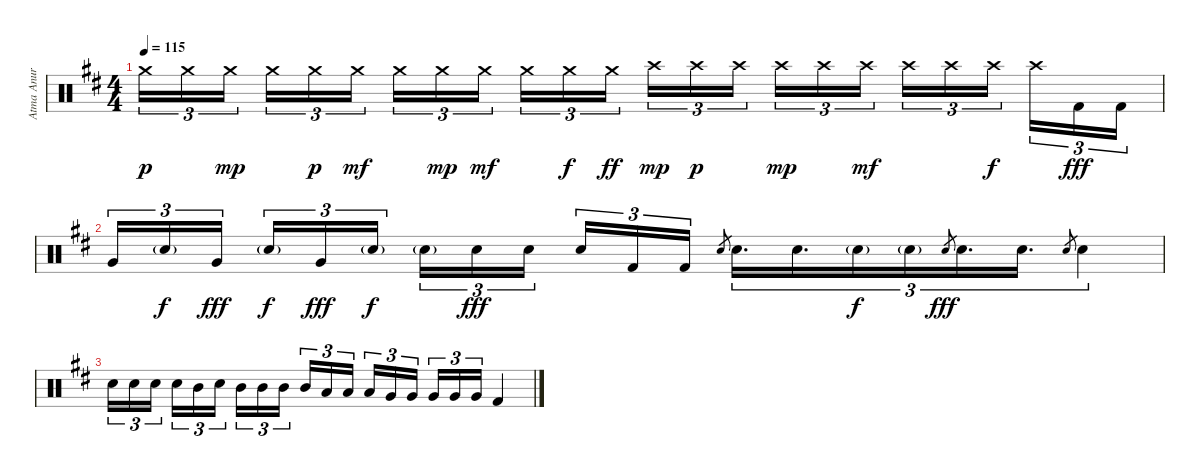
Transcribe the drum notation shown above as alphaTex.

\track ("Atma Anur" "Atma Anur") {instrument percussion}
\staff {score}
\articulation defaults
\ts (4 4)
\tempo 115
\clef neutral
\ks bminor "Crash medium (hit)".16{tu (3 2) dy p} "Crash medium (hit)".16{tu (3 2)} "Crash medium (hit)".16{tu (3 2) dy mp beam splitsecondary} "Crash medium (hit)".16{tu (3 2)} "Crash medium (hit)".16{tu (3 2) dy p} "Crash medium (hit)".16{tu (3 2) dy mf} "Crash medium (hit)".16{tu (3 2)} "Crash medium (hit)".16{tu (3 2) dy mp} "Crash medium (hit)".16{tu (3 2) dy mf beam splitsecondary} "Crash medium (hit)".16{tu (3 2)} "Crash medium (hit)".16{tu (3 2) dy f} "Crash medium (hit)".16{tu (3 2) dy ff} "Crash high (hit)".16{tu (3 2) dy mp} "Crash high (hit)".16{tu (3 2) dy p} "Crash high (hit)".16{tu (3 2) beam splitsecondary} "Crash high (hit)".16{tu (3 2) dy mp} "Crash high (hit)".16{tu (3 2)} "Crash high (hit)".16{tu (3 2) dy mf} "Crash high (hit)".16{tu (3 2)} "Crash high (hit)".16{tu (3 2)} "Crash high (hit)".16{tu (3 2) dy f beam splitsecondary} "Crash high (hit)".16{tu (3 2)} "Kick (hit) 2".16{tu (3 2) dy fff} "Kick (hit) 2".16{tu (3 2)}
|
"Very Low Tom (hit)".16{tu (3 2)} "Electric Snare (hit)"{g}.16{tu (3 2) dy f} "Very Low Tom (hit)".16{tu (3 2) dy fff beam splitsecondary} "Electric Snare (hit)"{g}.16{tu (3 2) dy f} "Very Low Tom (hit)".16{tu (3 2) dy fff} "Electric Snare (hit)"{g}.16{tu (3 2) dy f} "Electric Snare (hit)"{g}.16{tu (3 2)} "Electric Snare (hit)".16{tu (3 2) dy fff} "Electric Snare (hit)".16{tu (3 2) beam splitsecondary} "Electric Snare (hit)".16{tu (3 2)} "Kick (hit) 2".16{tu (3 2)} "Kick (hit) 2".16{tu (3 2)} "Electric Snare (hit)".8{gr} "Electric Snare (hit)".16{d tu (3 2)} "Electric Snare (hit)".16{d tu (3 2)} "Electric Snare (hit)"{g}.16{tu (3 2) dy f} "Electric Snare (hit)"{g}.16{tu (3 2)} "Electric Snare (hit)".8{gr dy fff} "Electric Snare (hit)".16{d tu (3 2)} "Electric Snare (hit)".16{d tu (3 2)} "Electric Snare (hit)".8{gr} "Electric Snare (hit)".4{tu (3 2)} |
"Electric Snare (hit)".16{tu (3 2)} "Electric Snare (hit)".16{tu (3 2)} "Electric Snare (hit)".16{tu (3 2) beam splitsecondary} "Electric Snare (hit)".16{tu (3 2)} "Mid Tom (hit)".16{tu (3 2)} "Electric Snare (hit)".16{tu (3 2)} "Mid Tom (hit)".16{tu (3 2)} "Mid Tom (hit)".16{tu (3 2)} "Mid Tom (hit)".16{tu (3 2) beam splitsecondary} "Mid Tom (hit)".16{tu (3 2)} "Low Tom (hit)".16{tu (3 2)} "Low Tom (hit)".16{tu (3 2)} "Low Tom (hit)".16{tu (3 2)} "Very Low Tom (hit)".16{tu (3 2)} "Very Low Tom (hit)".16{tu (3 2) beam splitsecondary} "Very Low Tom (hit)".16{tu (3 2)} "Very Low Tom (hit)".16{tu (3 2)} "Very Low Tom (hit)".16{tu (3 2)} "Kick (hit) 2".4
